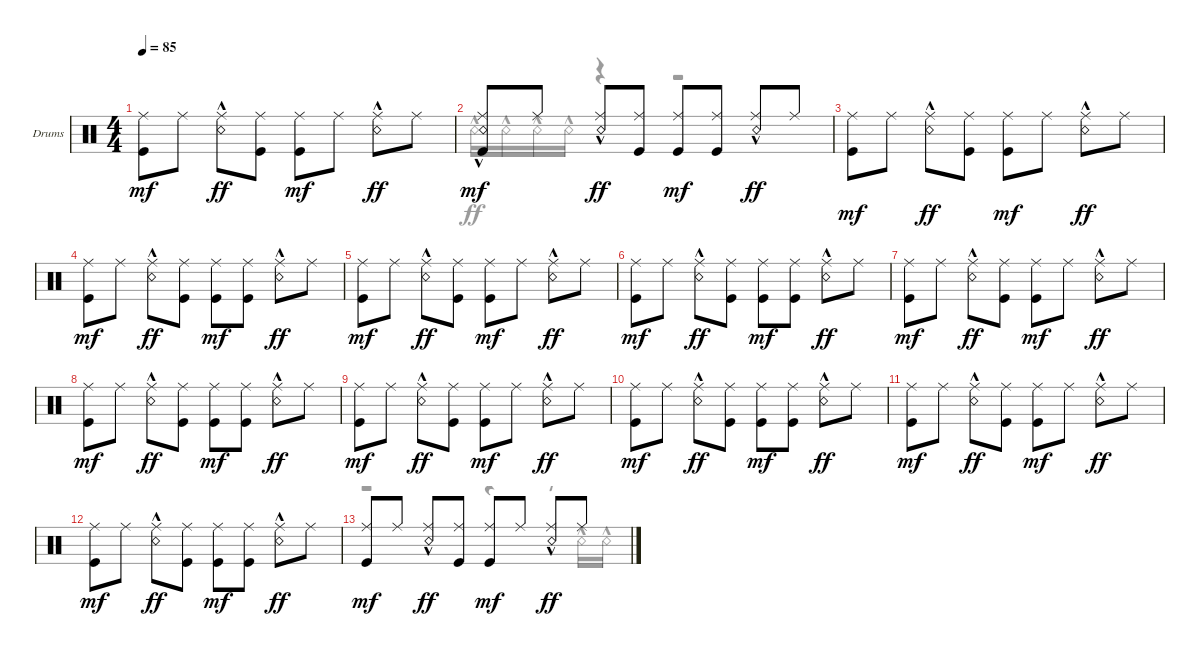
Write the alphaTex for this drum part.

\defaultSystemsLayout 4
\bracketExtendMode nobrackets
\firstSystemTrackNameOrientation horizontal
\otherSystemsTrackNameOrientation horizontal
\track ("Drumkit" "Drums") {instrument percussion}
\staff {score}
\articulation defaults
\voice
\ts (4 4)
\tempo 85
\clef neutral
\scale
0.333333
\ks c
("Kick (hit)" "Ride (middle)").8{dy mf} "Ride (middle)".8 ("Ride (middle)" "Snare (rim shot)"{hac}).8{dy ff} ("Ride (middle)" "Kick (hit)").8 ("Ride (middle)" "Kick (hit)").8{dy mf} "Ride (middle)".8 ("Ride (middle)" "Snare (rim shot)"{hac}).8{dy ff} "Ride (middle)".8 |
\scale
0.333333 ("Kick (hit)" "Ride (middle)" "Snare (rim shot)"{hac}).8{dy mf} "Ride (middle)".8 ("Ride (middle)" "Snare (rim shot)"{hac}).8{dy ff} ("Ride (middle)" "Kick (hit)").8 ("Ride (middle)" "Kick (hit)").8{dy mf} ("Ride (middle)" "Kick (hit)").8 ("Ride (middle)" "Snare (rim shot)"{hac}).8{dy ff} "Ride (middle)".8 |
\scale
0.333333 ("Kick (hit)" "Ride (middle)").8{dy mf} "Ride (middle)".8 ("Ride (middle)" "Snare (rim shot)"{hac}).8{dy ff} ("Ride (middle)" "Kick (hit)").8 ("Ride (middle)" "Kick (hit)").8{dy mf} "Ride (middle)".8 ("Ride (middle)" "Snare (rim shot)"{hac}).8{dy ff} "Ride (middle)".8 |
\scale
0.333333 ("Kick (hit)" "Ride (middle)").8{dy mf} "Ride (middle)".8 ("Ride (middle)" "Snare (rim shot)"{hac}).8{dy ff} ("Ride (middle)" "Kick (hit)").8 ("Ride (middle)" "Kick (hit)").8{dy mf} ("Ride (middle)" "Kick (hit)").8 ("Ride (middle)" "Snare (rim shot)"{hac}).8{dy ff} "Ride (middle)".8 |
("Kick (hit)" "Ride (middle)").8{dy mf} "Ride (middle)".8 ("Ride (middle)" "Snare (rim shot)"{hac}).8{dy ff} ("Ride (middle)" "Kick (hit)").8 ("Ride (middle)" "Kick (hit)").8{dy mf} "Ride (middle)".8 ("Ride (middle)" "Snare (rim shot)"{hac}).8{dy ff} "Ride (middle)".8 |
("Kick (hit)" "Ride (middle)").8{dy mf} "Ride (middle)".8 ("Ride (middle)" "Snare (rim shot)"{hac}).8{dy ff} ("Ride (middle)" "Kick (hit)").8 ("Ride (middle)" "Kick (hit)").8{dy mf} ("Ride (middle)" "Kick (hit)").8 ("Ride (middle)" "Snare (rim shot)"{hac}).8{dy ff} "Ride (middle)".8 |
("Kick (hit)" "Ride (middle)").8{dy mf} "Ride (middle)".8 ("Ride (middle)" "Snare (rim shot)"{hac}).8{dy ff} ("Ride (middle)" "Kick (hit)").8 ("Ride (middle)" "Kick (hit)").8{dy mf} "Ride (middle)".8 ("Ride (middle)" "Snare (rim shot)"{hac}).8{dy ff} "Ride (middle)".8 |
("Kick (hit)" "Ride (middle)").8{dy mf} "Ride (middle)".8 ("Ride (middle)" "Snare (rim shot)"{hac}).8{dy ff} ("Ride (middle)" "Kick (hit)").8 ("Ride (middle)" "Kick (hit)").8{dy mf} ("Ride (middle)" "Kick (hit)").8 ("Ride (middle)" "Snare (rim shot)"{hac}).8{dy ff} "Ride (middle)".8 |
("Kick (hit)" "Ride (middle)").8{dy mf} "Ride (middle)".8 ("Ride (middle)" "Snare (rim shot)"{hac}).8{dy ff} ("Ride (middle)" "Kick (hit)").8 ("Ride (middle)" "Kick (hit)").8{dy mf} "Ride (middle)".8 ("Ride (middle)" "Snare (rim shot)"{hac}).8{dy ff} "Ride (middle)".8 |
("Kick (hit)" "Ride (middle)").8{dy mf} "Ride (middle)".8 ("Ride (middle)" "Snare (rim shot)"{hac}).8{dy ff} ("Ride (middle)" "Kick (hit)").8 ("Ride (middle)" "Kick (hit)").8{dy mf} ("Ride (middle)" "Kick (hit)").8 ("Ride (middle)" "Snare (rim shot)"{hac}).8{dy ff} "Ride (middle)".8 |
("Kick (hit)" "Ride (middle)").8{dy mf} "Ride (middle)".8 ("Ride (middle)" "Snare (rim shot)"{hac}).8{dy ff} ("Ride (middle)" "Kick (hit)").8 ("Ride (middle)" "Kick (hit)").8{dy mf} "Ride (middle)".8 ("Ride (middle)" "Snare (rim shot)"{hac}).8{dy ff} "Ride (middle)".8 |
("Kick (hit)" "Ride (middle)").8{dy mf} "Ride (middle)".8 ("Ride (middle)" "Snare (rim shot)"{hac}).8{dy ff} ("Ride (middle)" "Kick (hit)").8 ("Ride (middle)" "Kick (hit)").8{dy mf} ("Ride (middle)" "Kick (hit)").8 ("Ride (middle)" "Snare (rim shot)"{hac}).8{dy ff} "Ride (middle)".8 |
("Kick (hit)" "Ride (middle)").8{dy mf} "Ride (middle)".8 ("Ride (middle)" "Snare (rim shot)"{hac}).8{dy ff} ("Ride (middle)" "Kick (hit)").8 ("Ride (middle)" "Kick (hit)").8{dy mf} "Ride (middle)".8 ("Ride (middle)" "Snare (rim shot)"{hac}).8{dy ff} "Ride (middle)".8 |
\voice
\clef neutral
\ottava regular
\simile none
\scale
0.333333
\ks c
|
\scale
0.333333 "Snare (rim shot)"{hac}.16{dy ff} "Snare (rim shot)"{hac}.16 "Snare (rim shot)"{hac}.16 "Snare (rim shot)"{hac}.16 r.4 r.2 |
\scale
0.333333 |
\scale
0.333333 |
|
|
|
|
|
|
|
|
r.2 r.4 r.8 "Snare (rim shot)"{hac}.16 "Snare (rim shot)"{hac}.16 |
